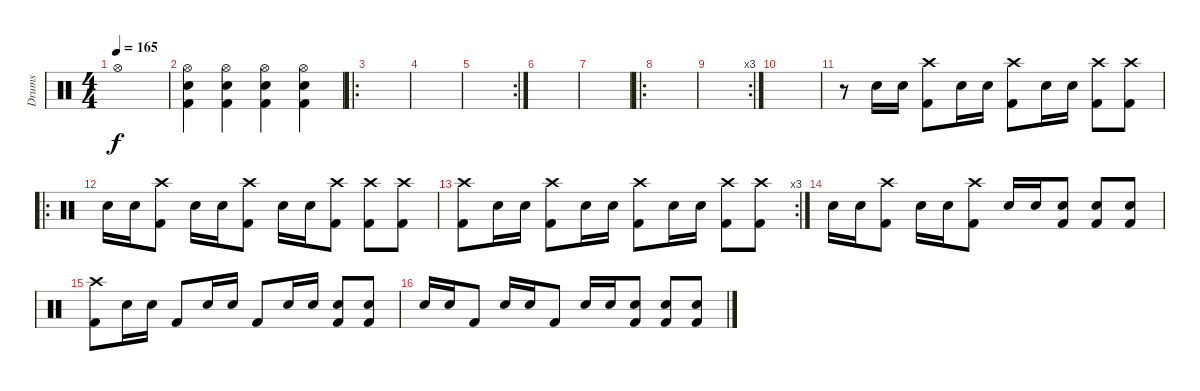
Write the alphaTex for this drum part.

\track ("Drums" "Drums") {instrument percussion}
\staff {score}
\articulation defaults
\ts (4 4)
\tempo 165
\clef neutral
\ks c "Hi-Hat (open)".1{dy f}
|
("Kick (hit) 2" "Hi-Hat (open)" "Snare (hit) 2").4 ("Kick (hit) 2" "Hi-Hat (open)" "Snare (hit) 2").4 ("Kick (hit) 2" "Hi-Hat (open)" "Snare (hit) 2").4 ("Kick (hit) 2" "Hi-Hat (open)" "Snare (hit) 2").4 |
\ro
|
|
\rc 2
|
|
|
\ro
|
\rc 3
|
|
r.8 "Snare (hit) 2".16 "Snare (hit) 2".16 ("Kick (hit) 2" "Crash high (hit)").8 "Snare (hit) 2".16 "Snare (hit) 2".16 ("Kick (hit) 2" "Crash high (hit)").8 "Snare (hit) 2".16 "Snare (hit) 2".16 ("Kick (hit) 2" "Crash high (hit)").8 ("Kick (hit) 2" "Crash high (hit)").8 |
\ro "Snare (hit) 2".16 "Snare (hit) 2".16
("Kick (hit) 2" "Crash high (hit)").8 "Snare (hit) 2".16 "Snare (hit) 2".16 ("Kick (hit) 2" "Crash high (hit)").8 "Snare (hit) 2".16 "Snare (hit) 2".16 ("Kick (hit) 2" "Crash high (hit)").8 ("Kick (hit) 2" "Crash high (hit)").8 ("Kick (hit) 2" "Crash high (hit)").8 |
\rc 3
("Kick (hit) 2" "Crash high (hit)").8 "Snare (hit) 2".16 "Snare (hit) 2".16 ("Kick (hit) 2" "Crash high (hit)").8 "Snare (hit) 2".16 "Snare (hit) 2".16 ("Kick (hit) 2" "Crash high (hit)").8 "Snare (hit) 2".16 "Snare (hit) 2".16 ("Kick (hit) 2" "Crash high (hit)").8 ("Kick (hit) 2" "Crash high (hit)").8 |
"Snare (hit) 2".16 "Snare (hit) 2".16 ("Kick (hit) 2" "Crash high (hit)").8 "Snare (hit) 2".16 "Snare (hit) 2".16 ("Kick (hit) 2" "Crash high (hit)").8 "Snare (hit) 2".16 "Snare (hit) 2".16 ("Kick (hit) 2" "Snare (hit) 2").8 ("Kick (hit) 2" "Snare (hit) 2").8 ("Kick (hit) 2" "Snare (hit) 2").8 |
("Kick (hit) 2" "Crash high (hit)").8 "Snare (hit) 2".16 "Snare (hit) 2".16 "Kick (hit) 2".8 "Snare (hit) 2".16 "Snare (hit) 2".16 "Kick (hit) 2".8 "Snare (hit) 2".16 "Snare (hit) 2".16 ("Kick (hit) 2" "Snare (hit) 2").8 ("Kick (hit) 2" "Snare (hit) 2").8 |
"Snare (hit) 2".16 "Snare (hit) 2".16 "Kick (hit) 2".8 "Snare (hit) 2".16 "Snare (hit) 2".16 "Kick (hit) 2".8 "Snare (hit) 2".16 "Snare (hit) 2".16 ("Kick (hit) 2" "Snare (hit) 2").8 ("Kick (hit) 2" "Snare (hit) 2").8 ("Kick (hit) 2" "Snare (hit) 2").8
